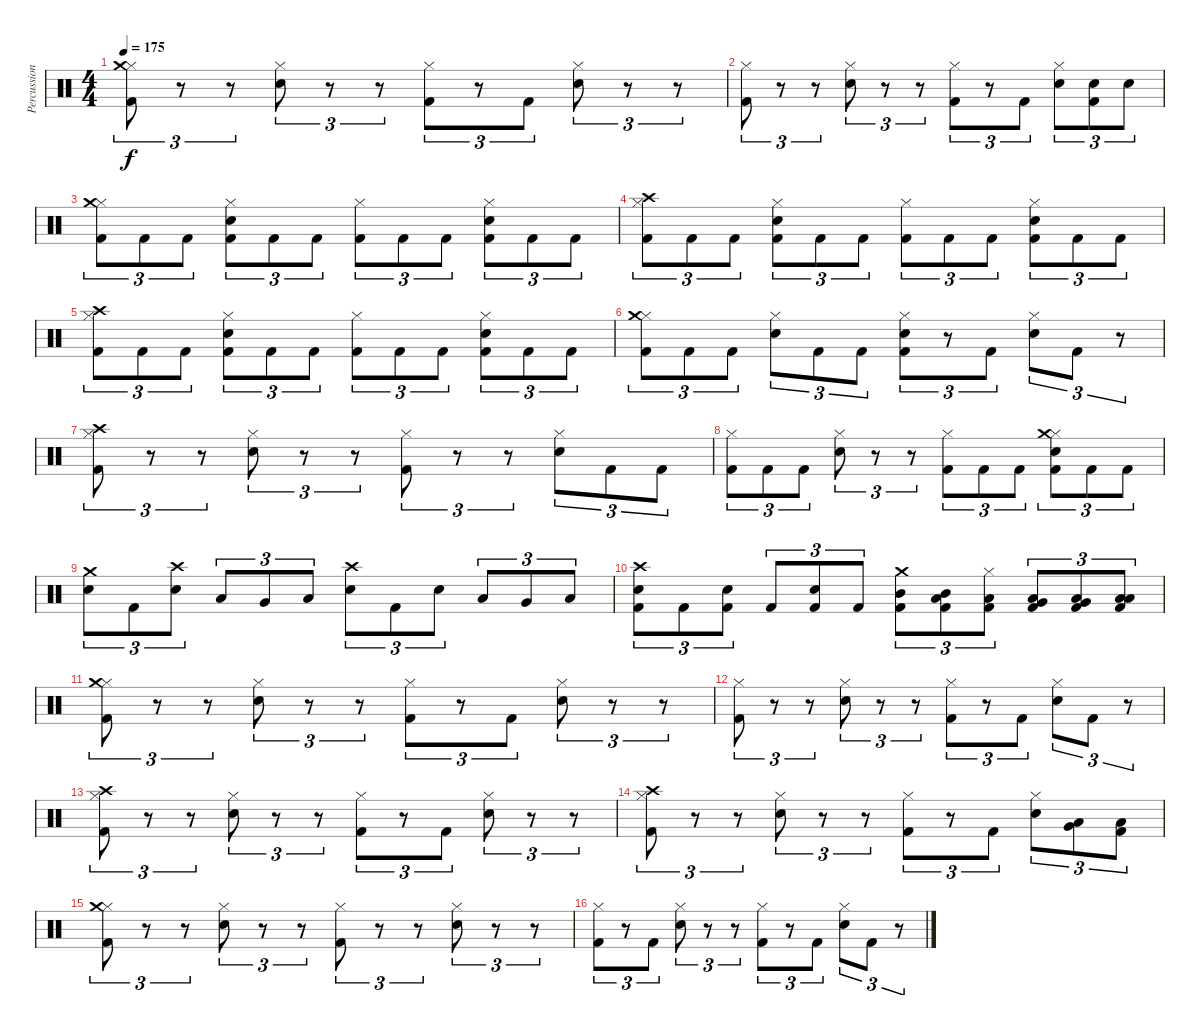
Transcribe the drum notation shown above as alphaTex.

\track ("Percussion" "Percussion") {instrument percussion}
\staff {score}
\articulation defaults
\ts (4 4)
\tempo 175
\clef neutral
\ks c
("Hi-Hat (closed)" "Kick (hit) 2" "Crash medium (hit)").8{tu (3 2) dy f} r.8{tu (3 2)} r.8{tu (3 2)} ("Hi-Hat (closed)" "Electric Snare (hit)").8{tu (3 2)} r.8{tu (3 2)} r.8{tu (3 2)} ("Hi-Hat (closed)" "Kick (hit) 2").8{tu (3 2)} r.8{tu (3 2)} "Kick (hit) 2".8{tu (3 2)} ("Hi-Hat (closed)" "Electric Snare (hit)").8{tu (3 2)} r.8{tu (3 2)} r.8{tu (3 2)} |
("Hi-Hat (closed)" "Kick (hit) 2").8{tu (3 2)} r.8{tu (3 2)} r.8{tu (3 2)} ("Hi-Hat (closed)" "Electric Snare (hit)").8{tu (3 2)} r.8{tu (3 2)} r.8{tu (3 2)} ("Hi-Hat (closed)" "Kick (hit) 2").8{tu (3 2)} r.8{tu (3 2)} "Kick (hit) 2".8{tu (3 2)} ("Hi-Hat (closed)" "Electric Snare (hit)").8{tu (3 2)} ("Kick (hit) 2" "Electric Snare (hit)").8{tu (3 2)} "Electric Snare (hit)".8{tu (3 2)} |
("Hi-Hat (closed)" "Kick (hit) 2" "Crash medium (hit)").8{tu (3 2)} "Kick (hit) 2".8{tu (3 2)} "Kick (hit) 2".8{tu (3 2)} ("Hi-Hat (closed)" "Kick (hit) 2" "Electric Snare (hit)").8{tu (3 2)} "Kick (hit) 2".8{tu (3 2)} "Kick (hit) 2".8{tu (3 2)} ("Hi-Hat (closed)" "Kick (hit) 2").8{tu (3 2)} "Kick (hit) 2".8{tu (3 2)} "Kick (hit) 2".8{tu (3 2)} ("Hi-Hat (closed)" "Kick (hit) 2" "Electric Snare (hit)").8{tu (3 2)} "Kick (hit) 2".8{tu (3 2)} "Kick (hit) 2".8{tu (3 2)} |
("Hi-Hat (closed)" "Kick (hit) 2" "Crash high (hit)").8{tu (3 2)} "Kick (hit) 2".8{tu (3 2)} "Kick (hit) 2".8{tu (3 2)} ("Hi-Hat (closed)" "Kick (hit) 2" "Electric Snare (hit)").8{tu (3 2)} "Kick (hit) 2".8{tu (3 2)} "Kick (hit) 2".8{tu (3 2)} ("Hi-Hat (closed)" "Kick (hit) 2").8{tu (3 2)} "Kick (hit) 2".8{tu (3 2)} "Kick (hit) 2".8{tu (3 2)} ("Hi-Hat (closed)" "Kick (hit) 2" "Electric Snare (hit)").8{tu (3 2)} "Kick (hit) 2".8{tu (3 2)} "Kick (hit) 2".8{tu (3 2)} |
("Hi-Hat (closed)" "Kick (hit) 2" "Crash high (hit)").8{tu (3 2)} "Kick (hit) 2".8{tu (3 2)} "Kick (hit) 2".8{tu (3 2)} ("Hi-Hat (closed)" "Kick (hit) 2" "Electric Snare (hit)").8{tu (3 2)} "Kick (hit) 2".8{tu (3 2)} "Kick (hit) 2".8{tu (3 2)} ("Hi-Hat (closed)" "Kick (hit) 2").8{tu (3 2)} "Kick (hit) 2".8{tu (3 2)} "Kick (hit) 2".8{tu (3 2)} ("Hi-Hat (closed)" "Kick (hit) 2" "Electric Snare (hit)").8{tu (3 2)} "Kick (hit) 2".8{tu (3 2)} "Kick (hit) 2".8{tu (3 2)} |
("Hi-Hat (closed)" "Kick (hit) 2" "Crash medium (hit)").8{tu (3 2)} "Kick (hit) 2".8{tu (3 2)} "Kick (hit) 2".8{tu (3 2)} ("Hi-Hat (closed)" "Electric Snare (hit)").8{tu (3 2)} "Kick (hit) 2".8{tu (3 2)} "Kick (hit) 2".8{tu (3 2)} ("Hi-Hat (closed)" "Kick (hit) 2" "Electric Snare (hit)").8{tu (3 2)} r.8{tu (3 2)} "Kick (hit) 2".8{tu (3 2)} ("Hi-Hat (closed)" "Electric Snare (hit)").8{tu (3 2)} "Kick (hit) 2".8{tu (3 2)} r.8{tu (3 2)} |
("Hi-Hat (closed)" "Crash high (hit)" "Kick (hit) 2").8{tu (3 2)} r.8{tu (3 2)} r.8{tu (3 2)} ("Hi-Hat (closed)" "Electric Snare (hit)").8{tu (3 2)} r.8{tu (3 2)} r.8{tu (3 2)} ("Hi-Hat (closed)" "Kick (hit) 2").8{tu (3 2)} r.8{tu (3 2)} r.8{tu (3 2)} ("Hi-Hat (closed)" "Electric Snare (hit)").8{tu (3 2)} "Kick (hit) 2".8{tu (3 2)} "Kick (hit) 2".8{tu (3 2)} |
("Hi-Hat (closed)" "Kick (hit) 2").8{tu (3 2)} "Kick (hit) 2".8{tu (3 2)} "Kick (hit) 2".8{tu (3 2)} ("Hi-Hat (closed)" "Electric Snare (hit)").8{tu (3 2)} r.8{tu (3 2)} r.8{tu (3 2)} ("Hi-Hat (closed)" "Kick (hit) 2").8{tu (3 2)} "Kick (hit) 2".8{tu (3 2)} "Kick (hit) 2".8{tu (3 2)} ("Hi-Hat (closed)" "Crash medium (hit)" "Kick (hit) 2" "Electric Snare (hit)").8{tu (3 2)} "Kick (hit) 2".8{tu (3 2)} "Kick (hit) 2".8{tu (3 2)} |
("Crash medium (hit)" "Electric Snare (hit)").8{tu (3 2)} "Kick (hit) 2".8{tu (3 2)} ("Crash high (hit)" "Electric Snare (hit)").8{tu (3 2)} "Low Tom (hit)".8{tu (3 2)} "Very Low Tom (hit)".8{tu (3 2)} "Low Floor Tom (hit)".8{tu (3 2)} ("Crash high (hit)" "Electric Snare (hit)").8{tu (3 2)} "Kick (hit) 2".8{tu (3 2)} "Electric Snare (hit)".8{tu (3 2)} "Low Tom (hit)".8{tu (3 2)} "Very Low Tom (hit)".8{tu (3 2)} "Low Floor Tom (hit)".8{tu (3 2)} |
("Crash high (hit)" "Kick (hit) 2" "Electric Snare (hit)").8{tu (3 2)} "Kick (hit) 2".8{tu (3 2)} ("Kick (hit) 2" "Electric Snare (hit)").8{tu (3 2)} "Kick (hit) 2".8{tu (3 2)} ("Kick (hit) 2" "Electric Snare (hit)").8{tu (3 2)} "Kick (hit) 2".8{tu (3 2)} ("Crash medium (hit)" "Kick (hit) 2" "Mid Tom (hit)").8{tu (3 2)} ("Mid Tom (hit)" "Kick (hit) 2" "Low Tom (hit)").8{tu (3 2)} ("Low Tom (hit)" "Kick (hit) 2" "Hi-Hat (closed)").8{tu (3 2)} ("Very Low Tom (hit)" "Kick (hit) 2" "Low Floor Tom (hit)").8{tu (3 2)} ("Very Low Tom (hit)" "Kick (hit) 2" "Low Floor Tom (hit)").8{tu (3 2)} ("Low Floor Tom (hit)" "Kick (hit) 2" "Low Floor Tom (hit)").8{tu (3 2)} |
("Hi-Hat (closed)" "Crash medium (hit)" "Kick (hit) 2").8{tu (3 2)} r.8{tu (3 2)} r.8{tu (3 2)} ("Hi-Hat (closed)" "Electric Snare (hit)").8{tu (3 2)} r.8{tu (3 2)} r.8{tu (3 2)} ("Hi-Hat (closed)" "Kick (hit) 2").8{tu (3 2)} r.8{tu (3 2)} "Kick (hit) 2".8{tu (3 2)} ("Hi-Hat (closed)" "Electric Snare (hit)").8{tu (3 2)} r.8{tu (3 2)} r.8{tu (3 2)} |
("Hi-Hat (closed)" "Kick (hit) 2").8{tu (3 2)} r.8{tu (3 2)} r.8{tu (3 2)} ("Hi-Hat (closed)" "Electric Snare (hit)").8{tu (3 2)} r.8{tu (3 2)} r.8{tu (3 2)} ("Hi-Hat (closed)" "Kick (hit) 2").8{tu (3 2)} r.8{tu (3 2)} "Kick (hit) 2".8{tu (3 2)} ("Hi-Hat (closed)" "Electric Snare (hit)").8{tu (3 2)} "Kick (hit) 2".8{tu (3 2)} r.8{tu (3 2)} |
("Hi-Hat (closed)" "Kick (hit) 2" "Crash high (hit)").8{tu (3 2)} r.8{tu (3 2)} r.8{tu (3 2)} ("Hi-Hat (closed)" "Electric Snare (hit)").8{tu (3 2)} r.8{tu (3 2)} r.8{tu (3 2)} ("Hi-Hat (closed)" "Kick (hit) 2").8{tu (3 2)} r.8{tu (3 2)} "Kick (hit) 2".8{tu (3 2)} ("Hi-Hat (closed)" "Electric Snare (hit)").8{tu (3 2)} r.8{tu (3 2)} r.8{tu (3 2)} |
("Hi-Hat (closed)" "Kick (hit) 2" "Crash high (hit)").8{tu (3 2)} r.8{tu (3 2)} r.8{tu (3 2)} ("Hi-Hat (closed)" "Electric Snare (hit)").8{tu (3 2)} r.8{tu (3 2)} r.8{tu (3 2)} ("Hi-Hat (closed)" "Kick (hit) 2").8{tu (3 2)} r.8{tu (3 2)} "Kick (hit) 2".8{tu (3 2)} ("Hi-Hat (closed)" "Electric Snare (hit)").8{tu (3 2)} ("Low Tom (hit)" "Very Low Tom (hit)").8{tu (3 2)} ("Low Floor Tom (hit)" "Kick (hit) 2").8{tu (3 2)} |
("Hi-Hat (closed)" "Kick (hit) 2" "Crash medium (hit)").8{tu (3 2)} r.8{tu (3 2)} r.8{tu (3 2)} ("Hi-Hat (closed)" "Electric Snare (hit)").8{tu (3 2)} r.8{tu (3 2)} r.8{tu (3 2)} ("Hi-Hat (closed)" "Kick (hit) 2").8{tu (3 2)} r.8{tu (3 2)} r.8{tu (3 2)} ("Hi-Hat (closed)" "Electric Snare (hit)").8{tu (3 2)} r.8{tu (3 2)} r.8{tu (3 2)} |
("Hi-Hat (closed)" "Kick (hit) 2").8{tu (3 2)} r.8{tu (3 2)} "Kick (hit) 2".8{tu (3 2)} ("Hi-Hat (closed)" "Electric Snare (hit)").8{tu (3 2)} r.8{tu (3 2)} r.8{tu (3 2)} ("Hi-Hat (closed)" "Kick (hit) 2").8{tu (3 2)} r.8{tu (3 2)} "Kick (hit) 2".8{tu (3 2)} ("Hi-Hat (closed)" "Electric Snare (hit)").8{tu (3 2)} "Kick (hit) 2".8{tu (3 2)} r.8{tu (3 2)}
